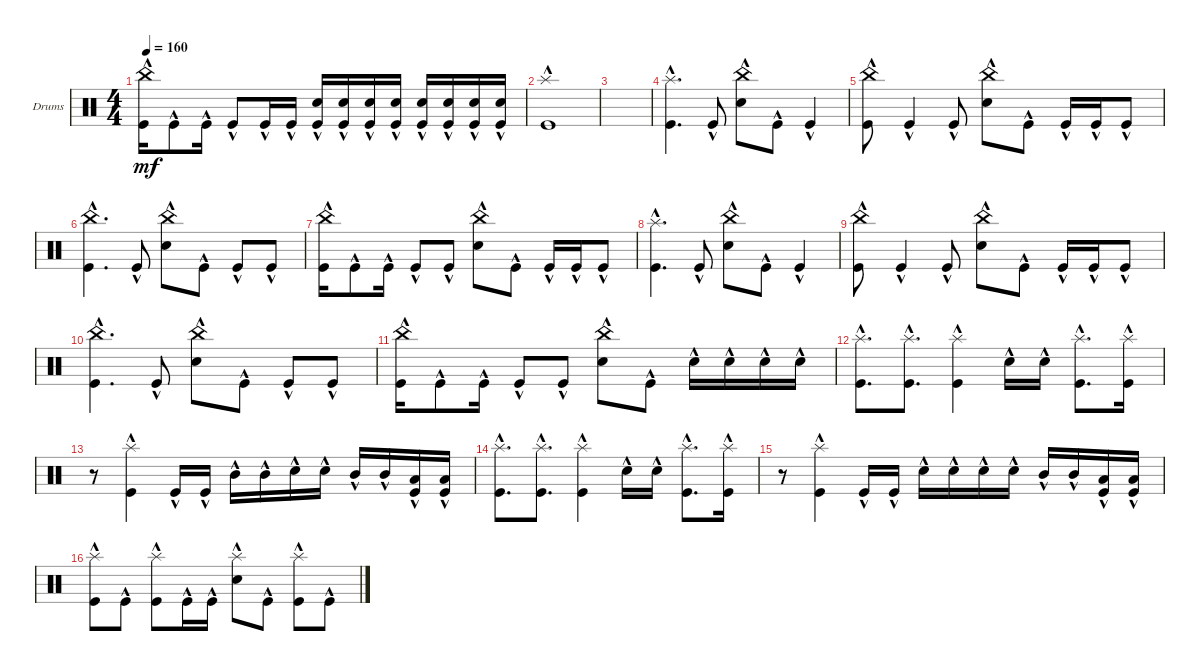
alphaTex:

\defaultSystemsLayout 4
\bracketExtendMode groupsimilarinstruments
\firstSystemTrackNameOrientation horizontal
\otherSystemsTrackNameOrientation horizontal
\track ("Drums" "Drums") {instrument percussion}
\staff {score}
\articulation defaults
\ts (4 4)
\tempo 160
\clef neutral
\ks c
("Kick (hit)"{hac} "China (hit)"{hac}).16{dy mf} "Kick (hit)"{hac}.8 "Kick (hit)"{hac}.16 "Kick (hit)"{hac}.8 "Kick (hit)"{hac}.16 "Kick (hit)"{hac}.16 ("Snare (hit) 2"{hac} "Kick (hit)").16 ("Snare (hit) 2"{hac} "Kick (hit)").16 ("Snare (hit) 2"{hac} "Kick (hit)").16 ("Snare (hit) 2"{hac} "Kick (hit)").16 ("Snare (hit) 2"{hac} "Kick (hit)").16 ("Snare (hit) 2"{hac} "Kick (hit)").16 ("Snare (hit) 2"{hac} "Kick (hit)").16 ("Snare (hit) 2"{hac} "Kick (hit)").16 |
("Kick (hit)"{hac} "Splash (hit)"{hac}).1 |
|
("Kick (hit)"{hac} "Splash (hit)"{hac}).4{d} "Kick (hit)"{hac}.8 ("Snare (hit) 2"{hac} "China (hit)"{hac}).8 "Kick (hit)"{hac}.8 "Kick (hit)"{hac}.4 |
("Kick (hit)"{hac} "China (hit)"{hac}).8 "Kick (hit)"{hac}.4 "Kick (hit)"{hac}.8 ("Snare (hit) 2"{hac} "China (hit)"{hac}).8 "Kick (hit)"{hac}.8 "Kick (hit)"{hac}.16 "Kick (hit)"{hac}.16 "Kick (hit)"{hac}.8 |
("Kick (hit)"{hac} "China (hit)"{hac}).4{d} "Kick (hit)"{hac}.8 ("Snare (hit) 2"{hac} "China (hit)"{hac}).8 "Kick (hit)"{hac}.8 "Kick (hit)"{hac}.8 "Kick (hit)"{hac}.8 |
("Kick (hit)"{hac} "China (hit)"{hac}).16 "Kick (hit)"{hac}.8 "Kick (hit)"{hac}.16 "Kick (hit)"{hac}.8 "Kick (hit)"{hac}.8 ("Snare (hit) 2"{hac} "China (hit)"{hac}).8 "Kick (hit)"{hac}.8 "Kick (hit)"{hac}.16 "Kick (hit)"{hac}.16 "Kick (hit)"{hac}.8 |
("Kick (hit)"{hac} "Splash (hit)"{hac}).4{d} "Kick (hit)"{hac}.8 ("Snare (hit) 2"{hac} "China (hit)"{hac}).8 "Kick (hit)"{hac}.8 "Kick (hit)"{hac}.4 |
("Kick (hit)"{hac} "China (hit)"{hac}).8 "Kick (hit)"{hac}.4 "Kick (hit)"{hac}.8 ("Snare (hit) 2"{hac} "China (hit)"{hac}).8 "Kick (hit)"{hac}.8 "Kick (hit)"{hac}.16 "Kick (hit)"{hac}.16 "Kick (hit)"{hac}.8 |
("Kick (hit)"{hac} "China (hit)"{hac}).4{d} "Kick (hit)"{hac}.8 ("Snare (hit) 2"{hac} "China (hit)"{hac}).8 "Kick (hit)"{hac}.8 "Kick (hit)"{hac}.8 "Kick (hit)"{hac}.8 |
("Kick (hit)"{hac} "China (hit)"{hac}).16 "Kick (hit)"{hac}.8 "Kick (hit)"{hac}.16 "Kick (hit)"{hac}.8 "Kick (hit)"{hac}.8 ("Snare (hit) 2"{hac} "China (hit)"{hac}).8 "Kick (hit)"{hac}.8 "Snare (hit) 2"{hac}.16 "Snare (hit) 2"{hac}.16 "Snare (hit) 2"{hac}.16 "Snare (hit) 2"{hac}.16 |
("Kick (hit)"{hac} "Splash (hit)"{hac}).8{d} ("Kick (hit)"{hac} "Splash (hit)"{hac}).8{d} ("Kick (hit)"{hac} "Splash (hit)"{hac}).4 "Snare (hit) 2"{hac}.16 "Snare (hit) 2"{hac}.16 ("Kick (hit)"{hac} "Splash (hit)"{hac}).8{d} ("Kick (hit)"{hac} "Splash (hit)"{hac}).16 |
r.8 ("Kick (hit)"{hac} "Splash (hit)"{hac}).4 "Kick (hit)"{hac}.16 "Kick (hit)"{hac}.16 "Mid Tom (hit)"{hac}.16 "Mid Tom (hit)"{hac}.16 "Snare (hit) 2"{hac}.16 "Snare (hit) 2"{hac}.16 "Mid Tom (hit)"{hac}.16 "Mid Tom (hit)"{hac}.16 ("Low Tom (hit)"{hac} "Kick (hit)").16 ("Low Tom (hit)"{hac} "Kick (hit)").16 |
("Kick (hit)"{hac} "Splash (hit)"{hac}).8{d} ("Kick (hit)"{hac} "Splash (hit)"{hac}).8{d} ("Kick (hit)"{hac} "Splash (hit)"{hac}).4 "Snare (hit) 2"{hac}.16 "Snare (hit) 2"{hac}.16 ("Kick (hit)"{hac} "Splash (hit)"{hac}).8{d} ("Kick (hit)"{hac} "Splash (hit)"{hac}).16 |
r.8 ("Kick (hit)"{hac} "Splash (hit)"{hac}).4 "Kick (hit)"{hac}.16 "Kick (hit)"{hac}.16 "Snare (hit) 2"{hac}.16 "Snare (hit) 2"{hac}.16 "Snare (hit) 2"{hac}.16 "Snare (hit) 2"{hac}.16 "Mid Tom (hit)"{hac}.16 "Mid Tom (hit)"{hac}.16 ("Low Tom (hit)"{hac} "Kick (hit)").16 ("Low Tom (hit)"{hac} "Kick (hit)").16 |
("Kick (hit)"{hac} "Splash (hit)"{hac}).8 "Kick (hit)"{hac}.8 ("Kick (hit)"{hac} "Splash (hit)"{hac}).8 "Kick (hit)"{hac}.16 "Kick (hit)"{hac}.16 ("Snare (hit) 2"{hac} "Splash (hit)"{hac}).8 "Kick (hit)"{hac}.8 ("Kick (hit)"{hac} "Splash (hit)"{hac}).8 "Kick (hit)"{hac}.8
